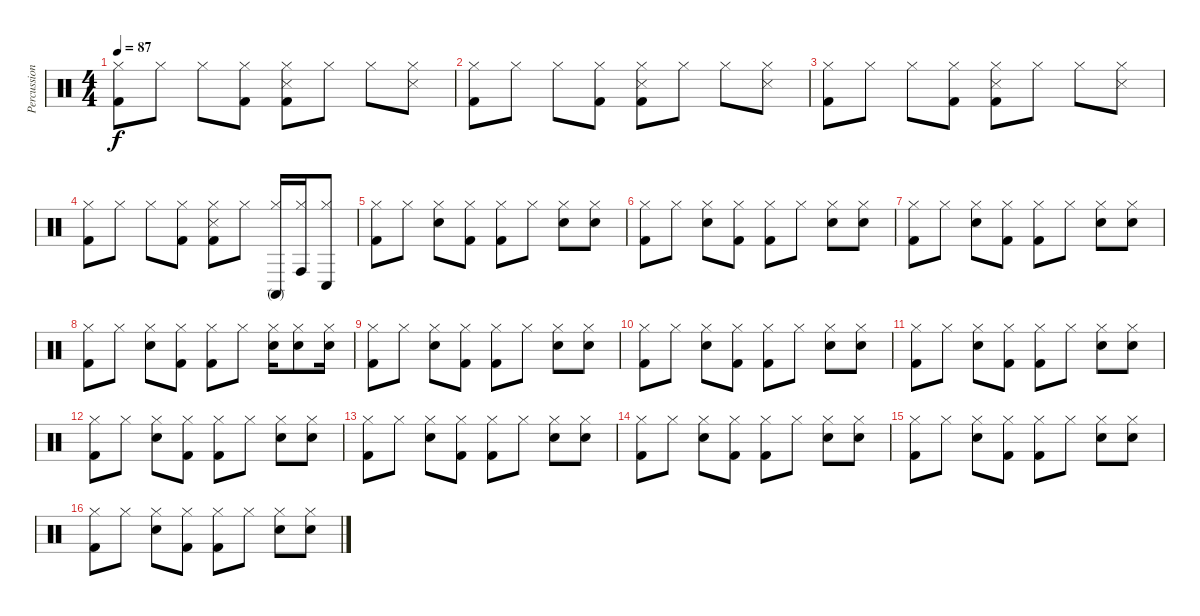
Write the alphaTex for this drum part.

\track ("Percussion" "Percussion") {instrument percussion}
\staff {score}
\articulation defaults
\ts (4 4)
\tempo 87
\clef neutral
\ks c
("Hi-Hat (closed)" "Kick (hit) 2").8{dy f} "Hi-Hat (closed)".8 "Hi-Hat (closed)".8 ("Hi-Hat (closed)" "Kick (hit) 2").8 ("Hi-Hat (closed)" "Snare (side stick) 3" "Kick (hit) 2").8 "Hi-Hat (closed)".8 "Hi-Hat (closed)".8 ("Hi-Hat (closed)" "Snare (side stick) 3").8 |
("Hi-Hat (closed)" "Kick (hit) 2").8 "Hi-Hat (closed)".8 "Hi-Hat (closed)".8 ("Hi-Hat (closed)" "Kick (hit) 2").8 ("Hi-Hat (closed)" "Snare (side stick) 3" "Kick (hit) 2").8 "Hi-Hat (closed)".8 "Hi-Hat (closed)".8 ("Hi-Hat (closed)" "Snare (side stick) 3").8 |
("Hi-Hat (closed)" "Kick (hit) 2").8 "Hi-Hat (closed)".8 "Hi-Hat (closed)".8 ("Hi-Hat (closed)" "Kick (hit) 2").8 ("Hi-Hat (closed)" "Snare (side stick) 3" "Kick (hit) 2").8 "Hi-Hat (closed)".8 "Hi-Hat (closed)".8 ("Hi-Hat (closed)" "Snare (side stick) 3").8 |
("Hi-Hat (closed)" "Kick (hit) 2").8 "Hi-Hat (closed)".8 "Hi-Hat (closed)".8 ("Hi-Hat (closed)" "Kick (hit) 2").8 ("Hi-Hat (closed)" "Snare (side stick) 3" "Kick (hit) 2").8 "Hi-Hat (closed)".8 ("Hi-Hat (closed)" "Conga high (mute)").16 ("Hi-Hat (closed)" "Conga high (hit)").16 ("Hi-Hat (closed)" "Conga low (hit)").8 |
("Hi-Hat (closed)" "Kick (hit) 2").8 "Hi-Hat (closed)".8 ("Hi-Hat (closed)" "Snare (hit) 2").8 ("Hi-Hat (closed)" "Kick (hit) 2").8 ("Hi-Hat (closed)" "Kick (hit) 2").8 "Hi-Hat (closed)".8 ("Hi-Hat (closed)" "Snare (hit) 2").8 ("Hi-Hat (closed)" "Snare (hit) 2").8 |
("Hi-Hat (closed)" "Kick (hit) 2").8 "Hi-Hat (closed)".8 ("Hi-Hat (closed)" "Snare (hit) 2").8 ("Hi-Hat (closed)" "Kick (hit) 2").8 ("Hi-Hat (closed)" "Kick (hit) 2").8 "Hi-Hat (closed)".8 ("Hi-Hat (closed)" "Snare (hit) 2").8 ("Hi-Hat (closed)" "Snare (hit) 2").8 |
("Hi-Hat (closed)" "Kick (hit) 2").8 "Hi-Hat (closed)".8 ("Hi-Hat (closed)" "Snare (hit) 2").8 ("Hi-Hat (closed)" "Kick (hit) 2").8 ("Hi-Hat (closed)" "Kick (hit) 2").8 "Hi-Hat (closed)".8 ("Hi-Hat (closed)" "Snare (hit) 2").8 ("Hi-Hat (closed)" "Snare (hit) 2").8 |
("Hi-Hat (closed)" "Kick (hit) 2").8 "Hi-Hat (closed)".8 ("Hi-Hat (closed)" "Snare (hit) 2").8 ("Hi-Hat (closed)" "Kick (hit) 2").8 ("Hi-Hat (closed)" "Kick (hit) 2").8 "Hi-Hat (closed)".8 ("Hi-Hat (closed)" "Snare (hit) 2").16 ("Hi-Hat (closed)" "Snare (hit) 2").8 ("Hi-Hat (closed)" "Snare (hit) 2").16 |
("Hi-Hat (closed)" "Kick (hit) 2").8 "Hi-Hat (closed)".8 ("Hi-Hat (closed)" "Snare (hit) 2").8 ("Hi-Hat (closed)" "Kick (hit) 2").8 ("Hi-Hat (closed)" "Kick (hit) 2").8 "Hi-Hat (closed)".8 ("Hi-Hat (closed)" "Snare (hit) 2").8 ("Hi-Hat (closed)" "Snare (hit) 2").8 |
("Hi-Hat (closed)" "Kick (hit) 2").8 "Hi-Hat (closed)".8 ("Hi-Hat (closed)" "Snare (hit) 2").8 ("Hi-Hat (closed)" "Kick (hit) 2").8 ("Hi-Hat (closed)" "Kick (hit) 2").8 "Hi-Hat (closed)".8 ("Hi-Hat (closed)" "Snare (hit) 2").8 ("Hi-Hat (closed)" "Snare (hit) 2").8 |
("Hi-Hat (closed)" "Kick (hit) 2").8 "Hi-Hat (closed)".8 ("Hi-Hat (closed)" "Snare (hit) 2").8 ("Hi-Hat (closed)" "Kick (hit) 2").8 ("Hi-Hat (closed)" "Kick (hit) 2").8 "Hi-Hat (closed)".8 ("Hi-Hat (closed)" "Snare (hit) 2").8 ("Hi-Hat (closed)" "Snare (hit) 2").8 |
("Hi-Hat (closed)" "Kick (hit) 2").8 "Hi-Hat (closed)".8 ("Hi-Hat (closed)" "Snare (hit) 2").8 ("Hi-Hat (closed)" "Kick (hit) 2").8 ("Hi-Hat (closed)" "Kick (hit) 2").8 "Hi-Hat (closed)".8 ("Hi-Hat (closed)" "Snare (hit) 2").8 ("Hi-Hat (closed)" "Snare (hit) 2").8 |
("Hi-Hat (closed)" "Kick (hit) 2").8 "Hi-Hat (closed)".8 ("Hi-Hat (closed)" "Snare (hit) 2").8 ("Hi-Hat (closed)" "Kick (hit) 2").8 ("Hi-Hat (closed)" "Kick (hit) 2").8 "Hi-Hat (closed)".8 ("Hi-Hat (closed)" "Snare (hit) 2").8 ("Hi-Hat (closed)" "Snare (hit) 2").8 |
("Hi-Hat (closed)" "Kick (hit) 2").8 "Hi-Hat (closed)".8 ("Hi-Hat (closed)" "Snare (hit) 2").8 ("Hi-Hat (closed)" "Kick (hit) 2").8 ("Hi-Hat (closed)" "Kick (hit) 2").8 "Hi-Hat (closed)".8 ("Hi-Hat (closed)" "Snare (hit) 2").8 ("Hi-Hat (closed)" "Snare (hit) 2").8 |
("Hi-Hat (closed)" "Kick (hit) 2").8 "Hi-Hat (closed)".8 ("Hi-Hat (closed)" "Snare (hit) 2").8 ("Hi-Hat (closed)" "Kick (hit) 2").8 ("Hi-Hat (closed)" "Kick (hit) 2").8 "Hi-Hat (closed)".8 ("Hi-Hat (closed)" "Snare (hit) 2").8 ("Hi-Hat (closed)" "Snare (hit) 2").8 |
("Hi-Hat (closed)" "Kick (hit) 2").8 "Hi-Hat (closed)".8 ("Hi-Hat (closed)" "Snare (hit) 2").8 ("Hi-Hat (closed)" "Kick (hit) 2").8 ("Hi-Hat (closed)" "Kick (hit) 2").8 "Hi-Hat (closed)".8 ("Hi-Hat (closed)" "Snare (hit) 2").8 ("Hi-Hat (closed)" "Snare (hit) 2").8
